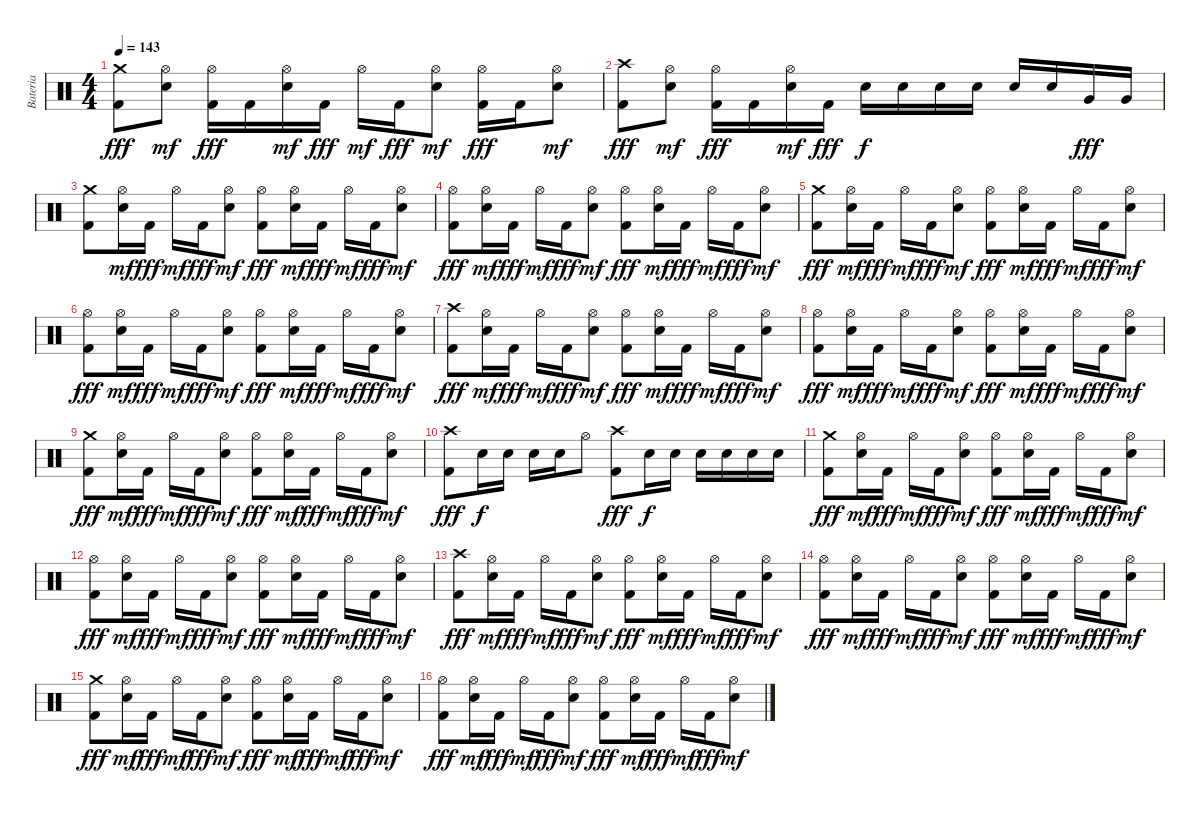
\track ("Bateria" "Bateria") {instrument percussion}
\staff {score}
\articulation defaults
\ts (4 4)
\tempo 143
\clef neutral
\ks c
("Crash medium (hit)" "Kick (hit) 2").8{dy fff} ("Hi-Hat (open)" "Electric Snare (hit)").8{dy mf} ("Hi-Hat (open)" "Kick (hit) 2").16{dy fff} "Kick (hit) 2".16 ("Hi-Hat (open)" "Electric Snare (hit)").16{dy mf} "Kick (hit) 2".16{dy fff} "Hi-Hat (open)".16{dy mf} "Kick (hit) 2".16{dy fff} ("Hi-Hat (open)" "Electric Snare (hit)").8{dy mf} ("Hi-Hat (open)" "Kick (hit) 2").16{dy fff} "Kick (hit) 2".16 ("Hi-Hat (open)" "Electric Snare (hit)").8{dy mf} |
("Crash high (hit)" "Kick (hit) 2").8{dy fff} ("Hi-Hat (open)" "Electric Snare (hit)").8{dy mf} ("Hi-Hat (open)" "Kick (hit) 2").16{dy fff} "Kick (hit) 2".16 ("Hi-Hat (open)" "Electric Snare (hit)").16{dy mf} "Kick (hit) 2".16{dy fff} "Electric Snare (hit)".16{dy f} "Electric Snare (hit)".16 "Electric Snare (hit)".16 "Electric Snare (hit)".16 "Electric Snare (hit)".16 "Electric Snare (hit)".16 "Very Low Tom (hit)".16{dy fff} "Very Low Tom (hit)".16 |
("Crash medium (hit)" "Kick (hit) 2").8 ("Hi-Hat (open)" "Electric Snare (hit)").16{dy mf} "Kick (hit) 2".16{dy fff} "Hi-Hat (open)".16{dy mf} "Kick (hit) 2".16{dy fff} ("Hi-Hat (open)" "Electric Snare (hit)").8{dy mf} ("Hi-Hat (open)" "Kick (hit) 2").8{dy fff} ("Hi-Hat (open)" "Electric Snare (hit)").16{dy mf} "Kick (hit) 2".16{dy fff} "Hi-Hat (open)".16{dy mf} "Kick (hit) 2".16{dy fff} ("Hi-Hat (open)" "Electric Snare (hit)").8{dy mf} |
("Hi-Hat (open)" "Kick (hit) 2").8{dy fff} ("Hi-Hat (open)" "Electric Snare (hit)").16{dy mf} "Kick (hit) 2".16{dy fff} "Hi-Hat (open)".16{dy mf} "Kick (hit) 2".16{dy fff} ("Hi-Hat (open)" "Electric Snare (hit)").8{dy mf} ("Hi-Hat (open)" "Kick (hit) 2").8{dy fff} ("Hi-Hat (open)" "Electric Snare (hit)").16{dy mf} "Kick (hit) 2".16{dy fff} "Hi-Hat (open)".16{dy mf} "Kick (hit) 2".16{dy fff} ("Hi-Hat (open)" "Electric Snare (hit)").8{dy mf} |
("Crash medium (hit)" "Kick (hit) 2").8{dy fff} ("Hi-Hat (open)" "Electric Snare (hit)").16{dy mf} "Kick (hit) 2".16{dy fff} "Hi-Hat (open)".16{dy mf} "Kick (hit) 2".16{dy fff} ("Hi-Hat (open)" "Electric Snare (hit)").8{dy mf} ("Hi-Hat (open)" "Kick (hit) 2").8{dy fff} ("Hi-Hat (open)" "Electric Snare (hit)").16{dy mf} "Kick (hit) 2".16{dy fff} "Hi-Hat (open)".16{dy mf} "Kick (hit) 2".16{dy fff} ("Hi-Hat (open)" "Electric Snare (hit)").8{dy mf} |
("Hi-Hat (open)" "Kick (hit) 2").8{dy fff} ("Hi-Hat (open)" "Electric Snare (hit)").16{dy mf} "Kick (hit) 2".16{dy fff} "Hi-Hat (open)".16{dy mf} "Kick (hit) 2".16{dy fff} ("Hi-Hat (open)" "Electric Snare (hit)").8{dy mf} ("Hi-Hat (open)" "Kick (hit) 2").8{dy fff} ("Hi-Hat (open)" "Electric Snare (hit)").16{dy mf} "Kick (hit) 2".16{dy fff} "Hi-Hat (open)".16{dy mf} "Kick (hit) 2".16{dy fff} ("Hi-Hat (open)" "Electric Snare (hit)").8{dy mf} |
("Crash high (hit)" "Kick (hit) 2").8{dy fff} ("Hi-Hat (open)" "Electric Snare (hit)").16{dy mf} "Kick (hit) 2".16{dy fff} "Hi-Hat (open)".16{dy mf} "Kick (hit) 2".16{dy fff} ("Hi-Hat (open)" "Electric Snare (hit)").8{dy mf} ("Hi-Hat (open)" "Kick (hit) 2").8{dy fff} ("Hi-Hat (open)" "Electric Snare (hit)").16{dy mf} "Kick (hit) 2".16{dy fff} "Hi-Hat (open)".16{dy mf} "Kick (hit) 2".16{dy fff} ("Hi-Hat (open)" "Electric Snare (hit)").8{dy mf} |
("Hi-Hat (open)" "Kick (hit) 2").8{dy fff} ("Hi-Hat (open)" "Electric Snare (hit)").16{dy mf} "Kick (hit) 2".16{dy fff} "Hi-Hat (open)".16{dy mf} "Kick (hit) 2".16{dy fff} ("Hi-Hat (open)" "Electric Snare (hit)").8{dy mf} ("Hi-Hat (open)" "Kick (hit) 2").8{dy fff} ("Hi-Hat (open)" "Electric Snare (hit)").16{dy mf} "Kick (hit) 2".16{dy fff} "Hi-Hat (open)".16{dy mf} "Kick (hit) 2".16{dy fff} ("Hi-Hat (open)" "Electric Snare (hit)").8{dy mf} |
("Crash medium (hit)" "Kick (hit) 2").8{dy fff} ("Hi-Hat (open)" "Electric Snare (hit)").16{dy mf} "Kick (hit) 2".16{dy fff} "Hi-Hat (open)".16{dy mf} "Kick (hit) 2".16{dy fff} ("Hi-Hat (open)" "Electric Snare (hit)").8{dy mf} ("Hi-Hat (open)" "Kick (hit) 2").8{dy fff} ("Hi-Hat (open)" "Electric Snare (hit)").16{dy mf} "Kick (hit) 2".16{dy fff} "Hi-Hat (open)".16{dy mf} "Kick (hit) 2".16{dy fff} ("Hi-Hat (open)" "Electric Snare (hit)").8{dy mf} |
("Crash high (hit)" "Kick (hit) 2").8{dy fff} "Electric Snare (hit)".16{dy f} "Electric Snare (hit)".16 "Electric Snare (hit)".16 "Electric Snare (hit)".16 "Hi-Hat (open)".8 ("Crash high (hit)" "Kick (hit) 2").8{dy fff} "Electric Snare (hit)".16{dy f} "Electric Snare (hit)".16 "Electric Snare (hit)".16 "Electric Snare (hit)".16 "Electric Snare (hit)".16 "Electric Snare (hit)".16 |
("Crash medium (hit)" "Kick (hit) 2").8{dy fff} ("Hi-Hat (open)" "Electric Snare (hit)").16{dy mf} "Kick (hit) 2".16{dy fff} "Hi-Hat (open)".16{dy mf} "Kick (hit) 2".16{dy fff} ("Hi-Hat (open)" "Electric Snare (hit)").8{dy mf} ("Hi-Hat (open)" "Kick (hit) 2").8{dy fff} ("Hi-Hat (open)" "Electric Snare (hit)").16{dy mf} "Kick (hit) 2".16{dy fff} "Hi-Hat (open)".16{dy mf} "Kick (hit) 2".16{dy fff} ("Hi-Hat (open)" "Electric Snare (hit)").8{dy mf} |
("Hi-Hat (open)" "Kick (hit) 2").8{dy fff} ("Hi-Hat (open)" "Electric Snare (hit)").16{dy mf} "Kick (hit) 2".16{dy fff} "Hi-Hat (open)".16{dy mf} "Kick (hit) 2".16{dy fff} ("Hi-Hat (open)" "Electric Snare (hit)").8{dy mf} ("Hi-Hat (open)" "Kick (hit) 2").8{dy fff} ("Hi-Hat (open)" "Electric Snare (hit)").16{dy mf} "Kick (hit) 2".16{dy fff} "Hi-Hat (open)".16{dy mf} "Kick (hit) 2".16{dy fff} ("Hi-Hat (open)" "Electric Snare (hit)").8{dy mf} |
("Crash high (hit)" "Kick (hit) 2").8{dy fff} ("Hi-Hat (open)" "Electric Snare (hit)").16{dy mf} "Kick (hit) 2".16{dy fff} "Hi-Hat (open)".16{dy mf} "Kick (hit) 2".16{dy fff} ("Hi-Hat (open)" "Electric Snare (hit)").8{dy mf} ("Hi-Hat (open)" "Kick (hit) 2").8{dy fff} ("Hi-Hat (open)" "Electric Snare (hit)").16{dy mf} "Kick (hit) 2".16{dy fff} "Hi-Hat (open)".16{dy mf} "Kick (hit) 2".16{dy fff} ("Hi-Hat (open)" "Electric Snare (hit)").8{dy mf} |
("Hi-Hat (open)" "Kick (hit) 2").8{dy fff} ("Hi-Hat (open)" "Electric Snare (hit)").16{dy mf} "Kick (hit) 2".16{dy fff} "Hi-Hat (open)".16{dy mf} "Kick (hit) 2".16{dy fff} ("Hi-Hat (open)" "Electric Snare (hit)").8{dy mf} ("Hi-Hat (open)" "Kick (hit) 2").8{dy fff} ("Hi-Hat (open)" "Electric Snare (hit)").16{dy mf} "Kick (hit) 2".16{dy fff} "Hi-Hat (open)".16{dy mf} "Kick (hit) 2".16{dy fff} ("Hi-Hat (open)" "Electric Snare (hit)").8{dy mf} |
("Crash medium (hit)" "Kick (hit) 2").8{dy fff} ("Hi-Hat (open)" "Electric Snare (hit)").16{dy mf} "Kick (hit) 2".16{dy fff} "Hi-Hat (open)".16{dy mf} "Kick (hit) 2".16{dy fff} ("Hi-Hat (open)" "Electric Snare (hit)").8{dy mf} ("Hi-Hat (open)" "Kick (hit) 2").8{dy fff} ("Hi-Hat (open)" "Electric Snare (hit)").16{dy mf} "Kick (hit) 2".16{dy fff} "Hi-Hat (open)".16{dy mf} "Kick (hit) 2".16{dy fff} ("Hi-Hat (open)" "Electric Snare (hit)").8{dy mf} |
("Hi-Hat (open)" "Kick (hit) 2").8{dy fff} ("Hi-Hat (open)" "Electric Snare (hit)").16{dy mf} "Kick (hit) 2".16{dy fff} "Hi-Hat (open)".16{dy mf} "Kick (hit) 2".16{dy fff} ("Hi-Hat (open)" "Electric Snare (hit)").8{dy mf} ("Hi-Hat (open)" "Kick (hit) 2").8{dy fff} ("Hi-Hat (open)" "Electric Snare (hit)").16{dy mf} "Kick (hit) 2".16{dy fff} "Hi-Hat (open)".16{dy mf} "Kick (hit) 2".16{dy fff} ("Hi-Hat (open)" "Electric Snare (hit)").8{dy mf}
